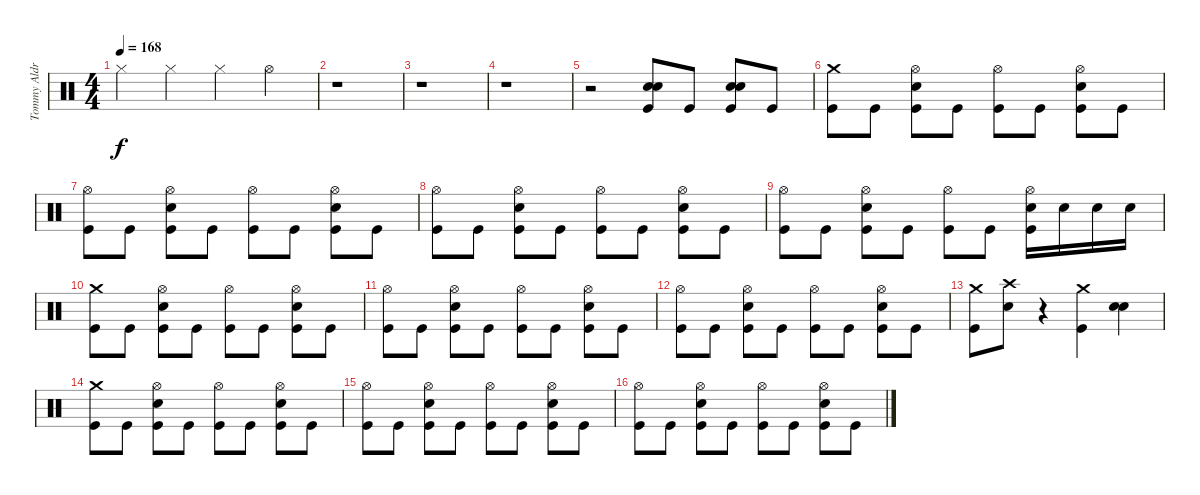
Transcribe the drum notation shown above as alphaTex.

\track ("Tommy Aldrige" "Tommy Aldr") {instrument percussion}
\staff {score}
\articulation defaults
\ts (4 4)
\tempo 168
\clef neutral
\ks c "Hi-Hat (closed)".4{dy f} "Hi-Hat (closed)".4 "Hi-Hat (closed)".4 "Hi-Hat (open)".4
|
r.1 |
r.1 |
r.1 |
r.2 ("Snare (hit) 2" "Snare (hit) 2" "Kick (hit)").8{bd 240} "Kick (hit)".8 ("Snare (hit) 2" "Snare (hit) 2" "Kick (hit)").8{bd 240} "Kick (hit)".8 |
("Crash medium (hit)" "Kick (hit)").8 "Kick (hit)".8 ("Hi-Hat (open)" "Snare (hit) 2" "Kick (hit)").8 "Kick (hit)".8 ("Hi-Hat (open)" "Kick (hit)").8 "Kick (hit)".8 ("Hi-Hat (open)" "Snare (hit) 2" "Kick (hit)").8 "Kick (hit)".8 |
("Hi-Hat (open)" "Kick (hit)").8 "Kick (hit)".8 ("Hi-Hat (open)" "Snare (hit) 2" "Kick (hit)").8 "Kick (hit)".8 ("Hi-Hat (open)" "Kick (hit)").8 "Kick (hit)".8 ("Hi-Hat (open)" "Snare (hit) 2" "Kick (hit)").8 "Kick (hit)".8 |
("Hi-Hat (open)" "Kick (hit)").8 "Kick (hit)".8 ("Hi-Hat (open)" "Snare (hit) 2" "Kick (hit)").8 "Kick (hit)".8 ("Hi-Hat (open)" "Kick (hit)").8 "Kick (hit)".8 ("Hi-Hat (open)" "Snare (hit) 2" "Kick (hit)").8 "Kick (hit)".8 |
("Hi-Hat (open)" "Kick (hit)").8 "Kick (hit)".8 ("Hi-Hat (open)" "Snare (hit) 2" "Kick (hit)").8 "Kick (hit)".8 ("Hi-Hat (open)" "Kick (hit)").8 "Kick (hit)".8 ("Hi-Hat (open)" "Snare (hit) 2" "Kick (hit)").16 "Snare (hit) 2".16 "Snare (hit) 2".16 "Snare (hit) 2".16 |
("Crash medium (hit)" "Kick (hit)").8 "Kick (hit)".8 ("Hi-Hat (open)" "Snare (hit) 2" "Kick (hit)").8 "Kick (hit)".8 ("Hi-Hat (open)" "Kick (hit)").8 "Kick (hit)".8 ("Hi-Hat (open)" "Snare (hit) 2" "Kick (hit)").8 "Kick (hit)".8 |
("Hi-Hat (open)" "Kick (hit)").8 "Kick (hit)".8 ("Hi-Hat (open)" "Snare (hit) 2" "Kick (hit)").8 "Kick (hit)".8 ("Hi-Hat (open)" "Kick (hit)").8 "Kick (hit)".8 ("Hi-Hat (open)" "Snare (hit) 2" "Kick (hit)").8 "Kick (hit)".8 |
("Hi-Hat (open)" "Kick (hit)").8 "Kick (hit)".8 ("Hi-Hat (open)" "Snare (hit) 2" "Kick (hit)").8 "Kick (hit)".8 ("Hi-Hat (open)" "Kick (hit)").8 "Kick (hit)".8 ("Hi-Hat (open)" "Snare (hit) 2" "Kick (hit)").8 "Kick (hit)".8 |
("Crash medium (hit)" "Kick (hit)").8 ("Crash high (hit)" "Snare (hit) 2").8 r.4 ("Crash medium (hit)" "Kick (hit)").4 ("Snare (hit) 2" "Snare (hit) 2").4{bd 240} |
("Crash medium (hit)" "Kick (hit)").8 "Kick (hit)".8 ("Hi-Hat (open)" "Snare (hit) 2" "Kick (hit)").8 "Kick (hit)".8 ("Hi-Hat (open)" "Kick (hit)").8 "Kick (hit)".8 ("Hi-Hat (open)" "Snare (hit) 2" "Kick (hit)").8 "Kick (hit)".8 |
("Hi-Hat (open)" "Kick (hit)").8 "Kick (hit)".8 ("Hi-Hat (open)" "Snare (hit) 2" "Kick (hit)").8 "Kick (hit)".8 ("Hi-Hat (open)" "Kick (hit)").8 "Kick (hit)".8 ("Hi-Hat (open)" "Snare (hit) 2" "Kick (hit)").8 "Kick (hit)".8 |
("Hi-Hat (open)" "Kick (hit)").8 "Kick (hit)".8 ("Hi-Hat (open)" "Snare (hit) 2" "Kick (hit)").8 "Kick (hit)".8 ("Hi-Hat (open)" "Kick (hit)").8 "Kick (hit)".8 ("Hi-Hat (open)" "Snare (hit) 2" "Kick (hit)").8 "Kick (hit)".8
